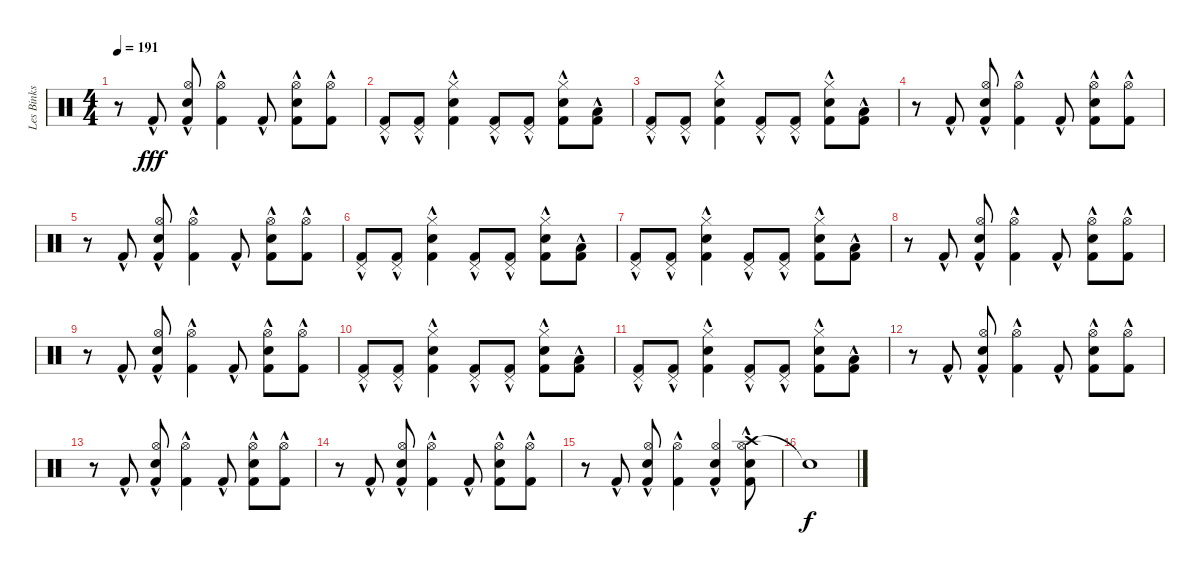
\track ("Les Binks" "Les Binks") {instrument percussion}
\staff {score}
\articulation defaults
\ts (4 4)
\tempo 191
\clef neutral
\ks c
r.8{dy fff} "Kick (hit) 2"{hac}.8 ("Hi-Hat (open)" "Snare (hit) 2" "Kick (hit) 2"{hac}).8 ("Hi-Hat (open)" "Kick (hit) 2"{hac}).4 "Kick (hit) 2"{hac}.8 ("Hi-Hat (open)" "Snare (hit) 2" "Kick (hit) 2"{hac}).8 ("Hi-Hat (open)" "Kick (hit) 2"{hac}).8 |
("Pedal Hi-Hat (hit)" "Kick (hit) 2"{hac}).8 ("Pedal Hi-Hat (hit)" "Kick (hit) 2"{hac}).8 ("Hi-Hat (closed)" "Snare (hit) 2" "Kick (hit) 2"{hac}).4 ("Pedal Hi-Hat (hit)" "Kick (hit) 2"{hac}).8 ("Pedal Hi-Hat (hit)" "Kick (hit) 2"{hac}).8 ("Hi-Hat (closed)" "Snare (hit) 2" "Kick (hit) 2"{hac}).8 ("Low Tom (hit)"{hac} "Kick (hit) 2"{hac}).8 |
("Pedal Hi-Hat (hit)" "Kick (hit) 2"{hac}).8 ("Pedal Hi-Hat (hit)" "Kick (hit) 2"{hac}).8 ("Hi-Hat (closed)" "Snare (hit) 2" "Kick (hit) 2"{hac}).4 ("Pedal Hi-Hat (hit)" "Kick (hit) 2"{hac}).8 ("Pedal Hi-Hat (hit)" "Kick (hit) 2"{hac}).8 ("Hi-Hat (closed)" "Snare (hit) 2" "Kick (hit) 2"{hac}).8 ("Low Tom (hit)"{hac} "Kick (hit) 2"{hac}).8 |
r.8 "Kick (hit) 2"{hac}.8 ("Hi-Hat (open)" "Snare (hit) 2" "Kick (hit) 2"{hac}).8 ("Hi-Hat (open)" "Kick (hit) 2"{hac}).4 "Kick (hit) 2"{hac}.8 ("Hi-Hat (open)" "Snare (hit) 2" "Kick (hit) 2"{hac}).8 ("Hi-Hat (open)" "Kick (hit) 2"{hac}).8 |
r.8 "Kick (hit) 2"{hac}.8 ("Hi-Hat (open)" "Snare (hit) 2" "Kick (hit) 2"{hac}).8 ("Hi-Hat (open)" "Kick (hit) 2"{hac}).4 "Kick (hit) 2"{hac}.8 ("Hi-Hat (open)" "Snare (hit) 2" "Kick (hit) 2"{hac}).8 ("Hi-Hat (open)" "Kick (hit) 2"{hac}).8 |
("Pedal Hi-Hat (hit)" "Kick (hit) 2"{hac}).8 ("Pedal Hi-Hat (hit)" "Kick (hit) 2"{hac}).8 ("Hi-Hat (closed)" "Snare (hit) 2" "Kick (hit) 2"{hac}).4 ("Pedal Hi-Hat (hit)" "Kick (hit) 2"{hac}).8 ("Pedal Hi-Hat (hit)" "Kick (hit) 2"{hac}).8 ("Hi-Hat (closed)" "Snare (hit) 2" "Kick (hit) 2"{hac}).8 ("Low Tom (hit)"{hac} "Kick (hit) 2"{hac}).8 |
("Pedal Hi-Hat (hit)" "Kick (hit) 2"{hac}).8 ("Pedal Hi-Hat (hit)" "Kick (hit) 2"{hac}).8 ("Hi-Hat (closed)" "Snare (hit) 2" "Kick (hit) 2"{hac}).4 ("Pedal Hi-Hat (hit)" "Kick (hit) 2"{hac}).8 ("Pedal Hi-Hat (hit)" "Kick (hit) 2"{hac}).8 ("Hi-Hat (closed)" "Snare (hit) 2" "Kick (hit) 2"{hac}).8 ("Low Tom (hit)"{hac} "Kick (hit) 2"{hac}).8 |
r.8 "Kick (hit) 2"{hac}.8 ("Hi-Hat (open)" "Snare (hit) 2" "Kick (hit) 2"{hac}).8 ("Hi-Hat (open)" "Kick (hit) 2"{hac}).4 "Kick (hit) 2"{hac}.8 ("Hi-Hat (open)" "Snare (hit) 2" "Kick (hit) 2"{hac}).8 ("Hi-Hat (open)" "Kick (hit) 2"{hac}).8 |
r.8 "Kick (hit) 2"{hac}.8 ("Hi-Hat (open)" "Snare (hit) 2" "Kick (hit) 2"{hac}).8 ("Hi-Hat (open)" "Kick (hit) 2"{hac}).4 "Kick (hit) 2"{hac}.8 ("Hi-Hat (open)" "Snare (hit) 2" "Kick (hit) 2"{hac}).8 ("Hi-Hat (open)" "Kick (hit) 2"{hac}).8 |
("Pedal Hi-Hat (hit)" "Kick (hit) 2"{hac}).8 ("Pedal Hi-Hat (hit)" "Kick (hit) 2"{hac}).8 ("Hi-Hat (closed)" "Snare (hit) 2" "Kick (hit) 2"{hac}).4 ("Pedal Hi-Hat (hit)" "Kick (hit) 2"{hac}).8 ("Pedal Hi-Hat (hit)" "Kick (hit) 2"{hac}).8 ("Hi-Hat (closed)" "Snare (hit) 2" "Kick (hit) 2"{hac}).8 ("Low Tom (hit)"{hac} "Kick (hit) 2"{hac}).8 |
("Pedal Hi-Hat (hit)" "Kick (hit) 2"{hac}).8 ("Pedal Hi-Hat (hit)" "Kick (hit) 2"{hac}).8 ("Hi-Hat (closed)" "Snare (hit) 2" "Kick (hit) 2"{hac}).4 ("Pedal Hi-Hat (hit)" "Kick (hit) 2"{hac}).8 ("Pedal Hi-Hat (hit)" "Kick (hit) 2"{hac}).8 ("Hi-Hat (closed)" "Snare (hit) 2" "Kick (hit) 2"{hac}).8 ("Low Tom (hit)"{hac} "Kick (hit) 2"{hac}).8 |
r.8 "Kick (hit) 2"{hac}.8 ("Hi-Hat (open)" "Snare (hit) 2" "Kick (hit) 2"{hac}).8 ("Hi-Hat (open)" "Kick (hit) 2"{hac}).4 "Kick (hit) 2"{hac}.8 ("Hi-Hat (open)" "Snare (hit) 2" "Kick (hit) 2"{hac}).8 ("Hi-Hat (open)" "Kick (hit) 2"{hac}).8 |
r.8 "Kick (hit) 2"{hac}.8 ("Hi-Hat (open)" "Snare (hit) 2" "Kick (hit) 2"{hac}).8 ("Hi-Hat (open)" "Kick (hit) 2"{hac}).4 "Kick (hit) 2"{hac}.8 ("Hi-Hat (open)" "Snare (hit) 2" "Kick (hit) 2"{hac}).8 ("Hi-Hat (open)" "Kick (hit) 2"{hac}).8 |
r.8 "Kick (hit) 2"{hac}.8 ("Hi-Hat (open)" "Snare (hit) 2" "Kick (hit) 2"{hac}).8 ("Hi-Hat (open)" "Kick (hit) 2"{hac}).4 "Kick (hit) 2"{hac}.8 ("Hi-Hat (open)" "Snare (hit) 2" "Kick (hit) 2"{hac}).8 ("Hi-Hat (open)" "Kick (hit) 2"{hac}).8 |
r.8 "Kick (hit) 2"{hac}.8 ("Hi-Hat (open)" "Snare (hit) 2" "Kick (hit) 2"{hac}).8 ("Hi-Hat (open)" "Kick (hit) 2"{hac}).4 ("Hi-Hat (open)" "Snare (hit) 2" "Kick (hit) 2"{hac}).4 ("Crash high (hit)" "Hi-Hat (open)" "Snare (hit) 2" "Kick (hit) 2"{hac}).8 |
"Snare (hit)"{t}.1{dy f}
